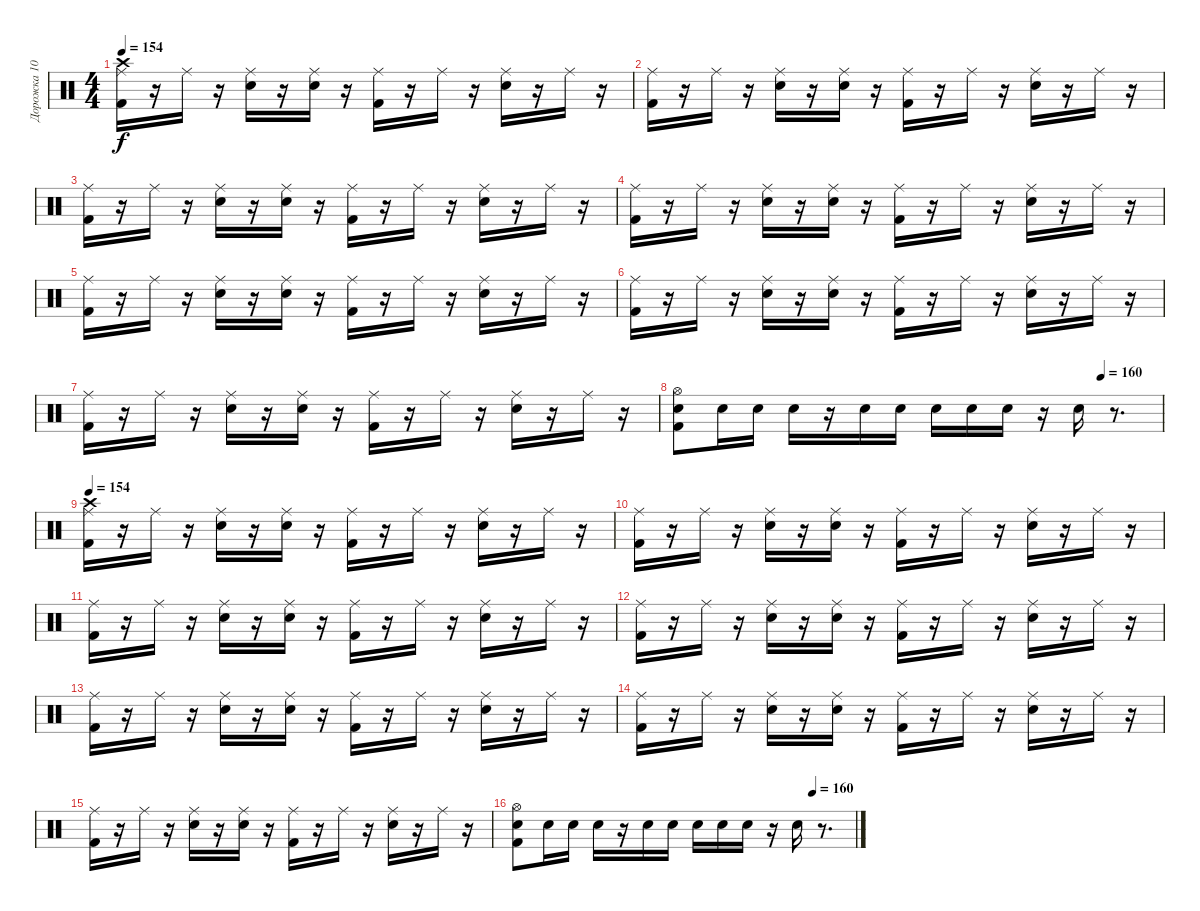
\track ("Дорожка 10" "Дорожка 10") {instrument percussion}
\staff {score}
\articulation defaults
\ts (4 4)
\tempo 154
\clef neutral
\ks c
("Ride (middle)" "Crash high (hit)" "Kick (hit) 2").16{dy f} r.16 "Ride (middle)".16 r.16 ("Ride (middle)" "Electric Snare (hit)").16 r.16 ("Ride (middle)" "Electric Snare (hit)").16 r.16 ("Ride (middle)" "Kick (hit) 2").16 r.16 "Ride (middle)".16 r.16 ("Ride (middle)" "Electric Snare (hit)").16 r.16 "Ride (middle)".16 r.16 |
("Ride (middle)" "Kick (hit) 2").16 r.16 "Ride (middle)".16 r.16 ("Ride (middle)" "Electric Snare (hit)").16 r.16 ("Ride (middle)" "Electric Snare (hit)").16 r.16 ("Ride (middle)" "Kick (hit) 2").16 r.16 "Ride (middle)".16 r.16 ("Ride (middle)" "Electric Snare (hit)").16 r.16 "Ride (middle)".16 r.16 |
("Ride (middle)" "Kick (hit) 2").16 r.16 "Ride (middle)".16 r.16 ("Ride (middle)" "Electric Snare (hit)").16 r.16 ("Ride (middle)" "Electric Snare (hit)").16 r.16 ("Ride (middle)" "Kick (hit) 2").16 r.16 "Ride (middle)".16 r.16 ("Ride (middle)" "Electric Snare (hit)").16 r.16 "Ride (middle)".16 r.16 |
("Ride (middle)" "Kick (hit) 2").16 r.16 "Ride (middle)".16 r.16 ("Ride (middle)" "Electric Snare (hit)").16 r.16 ("Ride (middle)" "Electric Snare (hit)").16 r.16 ("Ride (middle)" "Kick (hit) 2").16 r.16 "Ride (middle)".16 r.16 ("Ride (middle)" "Electric Snare (hit)").16 r.16 "Ride (middle)".16 r.16 |
("Ride (middle)" "Kick (hit) 2").16 r.16 "Ride (middle)".16 r.16 ("Ride (middle)" "Electric Snare (hit)").16 r.16 ("Ride (middle)" "Electric Snare (hit)").16 r.16 ("Ride (middle)" "Kick (hit) 2").16 r.16 "Ride (middle)".16 r.16 ("Ride (middle)" "Electric Snare (hit)").16 r.16 "Ride (middle)".16 r.16 |
("Ride (middle)" "Kick (hit) 2").16 r.16 "Ride (middle)".16 r.16 ("Ride (middle)" "Electric Snare (hit)").16 r.16 ("Ride (middle)" "Electric Snare (hit)").16 r.16 ("Ride (middle)" "Kick (hit) 2").16 r.16 "Ride (middle)".16 r.16 ("Ride (middle)" "Electric Snare (hit)").16 r.16 "Ride (middle)".16 r.16 |
("Ride (middle)" "Kick (hit) 2").16 r.16 "Ride (middle)".16 r.16 ("Ride (middle)" "Electric Snare (hit)").16 r.16 ("Ride (middle)" "Electric Snare (hit)").16 r.16 ("Ride (middle)" "Kick (hit) 2").16 r.16 "Ride (middle)".16 r.16 ("Ride (middle)" "Electric Snare (hit)").16 r.16 "Ride (middle)".16 r.16 |
\tempo (160 0.875)
("Kick (hit) 2" "Electric Snare (hit)" "Hi-Hat (open)").8 "Electric Snare (hit)".16 "Electric Snare (hit)".16 "Electric Snare (hit)".16 r.16 "Electric Snare (hit)".16 "Electric Snare (hit)".16 "Electric Snare (hit)".16 "Electric Snare (hit)".16 "Electric Snare (hit)".16 r.16 "Electric Snare (hit)".16 r.8{d} |
\tempo 154
("Ride (middle)" "Crash high (hit)" "Kick (hit) 2").16 r.16 "Ride (middle)".16 r.16 ("Ride (middle)" "Electric Snare (hit)").16 r.16 ("Ride (middle)" "Electric Snare (hit)").16 r.16 ("Ride (middle)" "Kick (hit) 2").16 r.16 "Ride (middle)".16 r.16 ("Ride (middle)" "Electric Snare (hit)").16 r.16 "Ride (middle)".16 r.16 |
("Ride (middle)" "Kick (hit) 2").16 r.16 "Ride (middle)".16 r.16 ("Ride (middle)" "Electric Snare (hit)").16 r.16 ("Ride (middle)" "Electric Snare (hit)").16 r.16 ("Ride (middle)" "Kick (hit) 2").16 r.16 "Ride (middle)".16 r.16 ("Ride (middle)" "Electric Snare (hit)").16 r.16 "Ride (middle)".16 r.16 |
("Ride (middle)" "Kick (hit) 2").16 r.16 "Ride (middle)".16 r.16 ("Ride (middle)" "Electric Snare (hit)").16 r.16 ("Ride (middle)" "Electric Snare (hit)").16 r.16 ("Ride (middle)" "Kick (hit) 2").16 r.16 "Ride (middle)".16 r.16 ("Ride (middle)" "Electric Snare (hit)").16 r.16 "Ride (middle)".16 r.16 |
("Ride (middle)" "Kick (hit) 2").16 r.16 "Ride (middle)".16 r.16 ("Ride (middle)" "Electric Snare (hit)").16 r.16 ("Ride (middle)" "Electric Snare (hit)").16 r.16 ("Ride (middle)" "Kick (hit) 2").16 r.16 "Ride (middle)".16 r.16 ("Ride (middle)" "Electric Snare (hit)").16 r.16 "Ride (middle)".16 r.16 |
("Ride (middle)" "Kick (hit) 2").16 r.16 "Ride (middle)".16 r.16 ("Ride (middle)" "Electric Snare (hit)").16 r.16 ("Ride (middle)" "Electric Snare (hit)").16 r.16 ("Ride (middle)" "Kick (hit) 2").16 r.16 "Ride (middle)".16 r.16 ("Ride (middle)" "Electric Snare (hit)").16 r.16 "Ride (middle)".16 r.16 |
("Ride (middle)" "Kick (hit) 2").16 r.16 "Ride (middle)".16 r.16 ("Ride (middle)" "Electric Snare (hit)").16 r.16 ("Ride (middle)" "Electric Snare (hit)").16 r.16 ("Ride (middle)" "Kick (hit) 2").16 r.16 "Ride (middle)".16 r.16 ("Ride (middle)" "Electric Snare (hit)").16 r.16 "Ride (middle)".16 r.16 |
("Ride (middle)" "Kick (hit) 2").16 r.16 "Ride (middle)".16 r.16 ("Ride (middle)" "Electric Snare (hit)").16 r.16 ("Ride (middle)" "Electric Snare (hit)").16 r.16 ("Ride (middle)" "Kick (hit) 2").16 r.16 "Ride (middle)".16 r.16 ("Ride (middle)" "Electric Snare (hit)").16 r.16 "Ride (middle)".16 r.16 |
\tempo (160 0.875)
("Kick (hit) 2" "Electric Snare (hit)" "Hi-Hat (open)").8 "Electric Snare (hit)".16 "Electric Snare (hit)".16 "Electric Snare (hit)".16 r.16 "Electric Snare (hit)".16 "Electric Snare (hit)".16 "Electric Snare (hit)".16 "Electric Snare (hit)".16 "Electric Snare (hit)".16 r.16 "Electric Snare (hit)".16 r.8{d}
